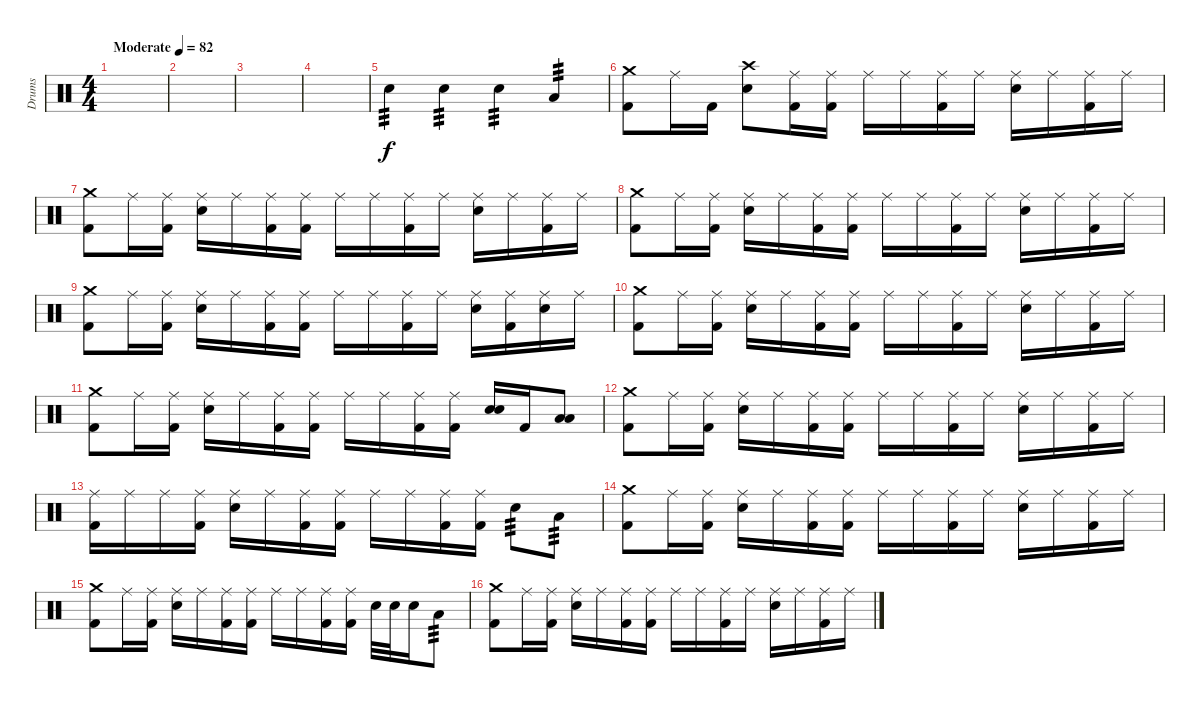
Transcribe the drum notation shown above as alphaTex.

\track ("Drums" "Drums") {instrument percussion}
\staff {score}
\articulation defaults
\ts (4 4)
\tempo (82 "Moderate")
\clef neutral
\ks c
|
|
|
|
"Snare (hit) 2".4{tp 3 volume 16} "Snare (hit) 2".4{tp 3} "Snare (hit) 2".4{tp 3} "Low Tom (hit)".4{tp 3} |
("Crash medium (hit)" "Kick (hit) 2").8 "Ride (middle)".16 "Kick (hit) 2".16 ("Crash high (hit)" "Snare (hit) 2").8 ("Ride (middle)" "Kick (hit) 2").16 ("Ride (middle)" "Kick (hit) 2").16 "Ride (middle)".16 "Ride (middle)".16 ("Ride (middle)" "Kick (hit) 2").16 "Ride (middle)".16 ("Ride (middle)" "Snare (hit) 2").16 "Ride (middle)".16 ("Ride (middle)" "Kick (hit) 2").16 "Ride (middle)".16 |
("Crash medium (hit)" "Kick (hit) 2").8 "Ride (middle)".16 ("Ride (middle)" "Kick (hit) 2").16 ("Ride (middle)" "Snare (hit) 2").16 "Ride (middle)".16 ("Ride (middle)" "Kick (hit) 2").16 ("Ride (middle)" "Kick (hit) 2").16 "Ride (middle)".16 "Ride (middle)".16 ("Ride (middle)" "Kick (hit) 2").16 "Ride (middle)".16 ("Ride (middle)" "Snare (hit) 2").16 "Ride (middle)".16 ("Ride (middle)" "Kick (hit) 2").16 "Ride (middle)".16 |
("Crash medium (hit)" "Kick (hit) 2").8 "Ride (middle)".16 ("Ride (middle)" "Kick (hit) 2").16 ("Ride (middle)" "Snare (hit) 2").16 "Ride (middle)".16 ("Ride (middle)" "Kick (hit) 2").16 ("Ride (middle)" "Kick (hit) 2").16 "Ride (middle)".16 "Ride (middle)".16 ("Ride (middle)" "Kick (hit) 2").16 "Ride (middle)".16 ("Ride (middle)" "Snare (hit) 2").16 "Ride (middle)".16 ("Ride (middle)" "Kick (hit) 2").16 "Ride (middle)".16 |
("Crash medium (hit)" "Kick (hit) 2").8 "Ride (middle)".16 ("Ride (middle)" "Kick (hit) 2").16 ("Ride (middle)" "Snare (hit) 2").16 "Ride (middle)".16 ("Ride (middle)" "Kick (hit) 2").16 ("Ride (middle)" "Kick (hit) 2").16 "Ride (middle)".16 "Ride (middle)".16 ("Ride (middle)" "Kick (hit) 2").16 "Ride (middle)".16 ("Ride (middle)" "Snare (hit) 2").16 ("Ride (middle)" "Kick (hit) 2").16 ("Ride (middle)" "Snare (hit) 2").16 "Ride (middle)".16 |
("Crash medium (hit)" "Kick (hit) 2").8 "Ride (middle)".16 ("Ride (middle)" "Kick (hit) 2").16 ("Ride (middle)" "Snare (hit) 2").16 "Ride (middle)".16 ("Ride (middle)" "Kick (hit) 2").16 ("Ride (middle)" "Kick (hit) 2").16 "Ride (middle)".16 "Ride (middle)".16 ("Ride (middle)" "Kick (hit) 2").16 "Ride (middle)".16 ("Ride (middle)" "Snare (hit) 2").16 "Ride (middle)".16 ("Ride (middle)" "Kick (hit) 2").16 "Ride (middle)".16 |
("Crash medium (hit)" "Kick (hit) 2").8 "Ride (middle)".16 ("Ride (middle)" "Kick (hit) 2").16 ("Ride (middle)" "Snare (hit) 2").16 "Ride (middle)".16 ("Ride (middle)" "Kick (hit) 2").16 ("Ride (middle)" "Kick (hit) 2").16 "Ride (middle)".16 "Ride (middle)".16 ("Ride (middle)" "Kick (hit) 2").16 ("Ride (middle)" "Kick (hit) 2").16 ("Snare (hit) 2" "Snare (hit) 2").16{bd 120} "Kick (hit) 2".16 ("Low Tom (hit)" "Low Tom (hit)").8{bd 120} |
("Crash medium (hit)" "Kick (hit) 2").8 "Ride (middle)".16 ("Ride (middle)" "Kick (hit) 2").16 ("Ride (middle)" "Snare (hit) 2").16 "Ride (middle)".16 ("Ride (middle)" "Kick (hit) 2").16 ("Ride (middle)" "Kick (hit) 2").16 "Ride (middle)".16 "Ride (middle)".16 ("Ride (middle)" "Kick (hit) 2").16 "Ride (middle)".16 ("Ride (middle)" "Snare (hit) 2").16 "Ride (middle)".16 ("Ride (middle)" "Kick (hit) 2").16 "Ride (middle)".16 |
("Ride (middle)" "Kick (hit) 2").16 "Ride (middle)".16 "Ride (middle)".16 ("Ride (middle)" "Kick (hit) 2").16 ("Ride (middle)" "Snare (hit) 2").16 "Ride (middle)".16 ("Ride (middle)" "Kick (hit) 2").16 ("Ride (middle)" "Kick (hit) 2").16 "Ride (middle)".16 "Ride (middle)".16 ("Ride (middle)" "Kick (hit) 2").16 ("Ride (middle)" "Kick (hit) 2").16 "Snare (hit) 2".8{tp 3} "Low Tom (hit)".8{tp 3} |
("Crash medium (hit)" "Kick (hit) 2").8 "Ride (middle)".16 ("Ride (middle)" "Kick (hit) 2").16 ("Ride (middle)" "Snare (hit) 2").16 "Ride (middle)".16 ("Ride (middle)" "Kick (hit) 2").16 ("Ride (middle)" "Kick (hit) 2").16 "Ride (middle)".16 "Ride (middle)".16 ("Ride (middle)" "Kick (hit) 2").16 "Ride (middle)".16 ("Ride (middle)" "Snare (hit) 2").16 "Ride (middle)".16 ("Ride (middle)" "Kick (hit) 2").16 "Ride (middle)".16 |
("Crash medium (hit)" "Kick (hit) 2").8 "Ride (middle)".16 ("Ride (middle)" "Kick (hit) 2").16 ("Ride (middle)" "Snare (hit) 2").16 "Ride (middle)".16 ("Ride (middle)" "Kick (hit) 2").16 ("Ride (middle)" "Kick (hit) 2").16 "Ride (middle)".16 "Ride (middle)".16 ("Ride (middle)" "Kick (hit) 2").16 ("Ride (middle)" "Kick (hit) 2").16 "Snare (hit) 2".32 "Snare (hit) 2".32 "Snare (hit) 2".16 "Low Tom (hit)".8{tp 3} |
("Crash medium (hit)" "Kick (hit) 2").8 "Ride (middle)".16 ("Ride (middle)" "Kick (hit) 2").16 ("Ride (middle)" "Snare (hit) 2").16 "Ride (middle)".16 ("Ride (middle)" "Kick (hit) 2").16 ("Ride (middle)" "Kick (hit) 2").16 "Ride (middle)".16 "Ride (middle)".16 ("Ride (middle)" "Kick (hit) 2").16 "Ride (middle)".16 ("Ride (middle)" "Snare (hit) 2").16 "Ride (middle)".16 ("Ride (middle)" "Kick (hit) 2").16 "Ride (middle)".16
